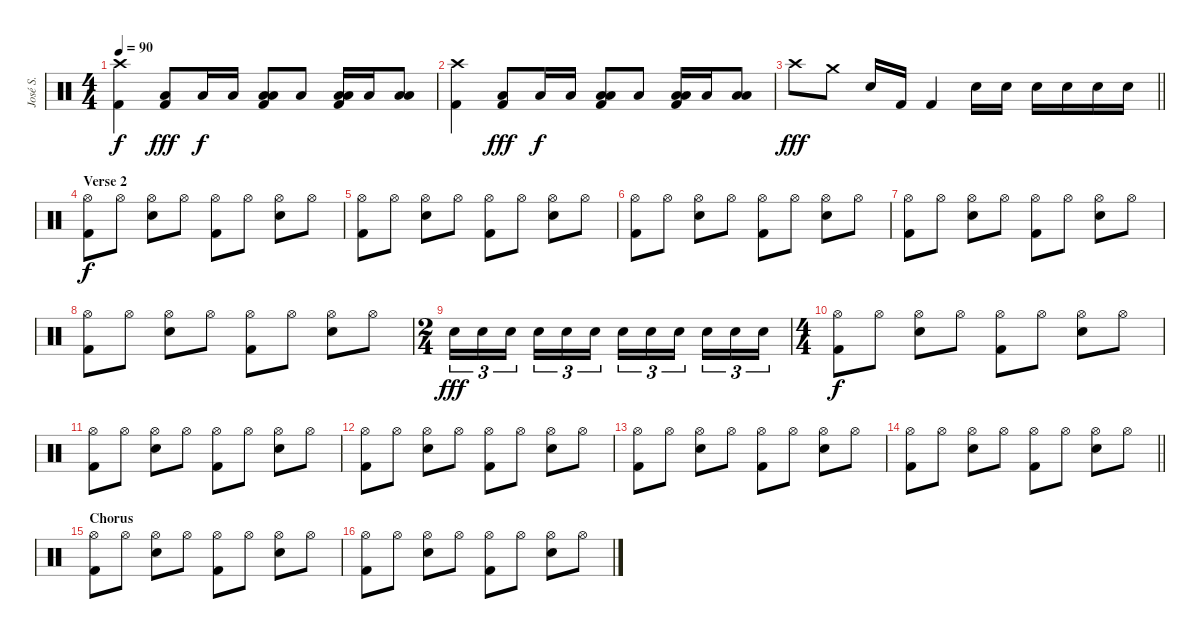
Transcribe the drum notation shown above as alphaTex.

\track ("José S." "José S.") {instrument percussion}
\staff {score}
\articulation defaults
\ts (4 4)
\tempo 90
\clef neutral
\ks c
("Crash high (hit)" "Kick (hit) 2").4{dy f} ("Low Floor Tom (hit)" "Kick (hit) 2").8{dy fff} "Low Floor Tom (hit)".16{dy f} "Low Floor Tom (hit)".16 ("Low Tom (hit)" "Low Floor Tom (hit)" "Kick (hit) 2").8 "Low Floor Tom (hit)".8 ("Low Tom (hit)" "Low Floor Tom (hit)" "Kick (hit) 2").16 "Low Floor Tom (hit)".16 ("Low Tom (hit)" "Low Floor Tom (hit)").8 |
("Crash high (hit)" "Kick (hit) 2").4 ("Low Floor Tom (hit)" "Kick (hit) 2").8{dy fff} "Low Floor Tom (hit)".16{dy f} "Low Floor Tom (hit)".16 ("Low Tom (hit)" "Low Floor Tom (hit)" "Kick (hit) 2").8 "Low Floor Tom (hit)".8 ("Low Tom (hit)" "Low Floor Tom (hit)" "Kick (hit) 2").16 "Low Floor Tom (hit)".16 ("Low Tom (hit)" "Low Floor Tom (hit)").8 |
\barLineRight lightlight "Crash high (hit)".8{dy fff} "Crash medium (hit)".8 "Electric Snare (hit)".16 "Kick (hit) 2".16 "Kick (hit) 2".4 "Electric Snare (hit)".16 "Electric Snare (hit)".16 "Electric Snare (hit)".16 "Electric Snare (hit)".16 "Electric Snare (hit)".16 "Electric Snare (hit)".16
|
\section ("" "Verse 2")
("Hi-Hat (open)" "Kick (hit) 2").8{dy f} "Hi-Hat (open)".8 ("Hi-Hat (open)" "Electric Snare (hit)").8 "Hi-Hat (open)".8 ("Hi-Hat (open)" "Kick (hit) 2").8 "Hi-Hat (open)".8 ("Hi-Hat (open)" "Electric Snare (hit)").8 "Hi-Hat (open)".8 |
("Hi-Hat (open)" "Kick (hit) 2").8 "Hi-Hat (open)".8 ("Hi-Hat (open)" "Electric Snare (hit)").8 "Hi-Hat (open)".8 ("Hi-Hat (open)" "Kick (hit) 2").8 "Hi-Hat (open)".8 ("Hi-Hat (open)" "Electric Snare (hit)").8 "Hi-Hat (open)".8 |
("Hi-Hat (open)" "Kick (hit) 2").8 "Hi-Hat (open)".8 ("Hi-Hat (open)" "Electric Snare (hit)").8 "Hi-Hat (open)".8 ("Hi-Hat (open)" "Kick (hit) 2").8 "Hi-Hat (open)".8 ("Hi-Hat (open)" "Electric Snare (hit)").8 "Hi-Hat (open)".8 |
("Hi-Hat (open)" "Kick (hit) 2").8 "Hi-Hat (open)".8 ("Hi-Hat (open)" "Electric Snare (hit)").8 "Hi-Hat (open)".8 ("Hi-Hat (open)" "Kick (hit) 2").8 "Hi-Hat (open)".8 ("Hi-Hat (open)" "Electric Snare (hit)").8 "Hi-Hat (open)".8 |
("Hi-Hat (open)" "Kick (hit) 2").8 "Hi-Hat (open)".8 ("Hi-Hat (open)" "Electric Snare (hit)").8 "Hi-Hat (open)".8 ("Hi-Hat (open)" "Kick (hit) 2").8 "Hi-Hat (open)".8 ("Hi-Hat (open)" "Electric Snare (hit)").8 "Hi-Hat (open)".8 |
\ts (2 4)
"Electric Snare (hit)".16{tu (3 2) dy fff} "Electric Snare (hit)".16{tu (3 2)} "Electric Snare (hit)".16{tu (3 2) beam splitsecondary} "Electric Snare (hit)".16{tu (3 2)} "Electric Snare (hit)".16{tu (3 2)} "Electric Snare (hit)".16{tu (3 2)} "Electric Snare (hit)".16{tu (3 2)} "Electric Snare (hit)".16{tu (3 2)} "Electric Snare (hit)".16{tu (3 2) beam splitsecondary} "Electric Snare (hit)".16{tu (3 2)} "Electric Snare (hit)".16{tu (3 2)} "Electric Snare (hit)".16{tu (3 2)} |
\ts (4 4)
("Hi-Hat (open)" "Kick (hit) 2").8{dy f} "Hi-Hat (open)".8 ("Hi-Hat (open)" "Electric Snare (hit)").8 "Hi-Hat (open)".8 ("Hi-Hat (open)" "Kick (hit) 2").8 "Hi-Hat (open)".8 ("Hi-Hat (open)" "Electric Snare (hit)").8 "Hi-Hat (open)".8 |
("Hi-Hat (open)" "Kick (hit) 2").8 "Hi-Hat (open)".8 ("Hi-Hat (open)" "Electric Snare (hit)").8 "Hi-Hat (open)".8 ("Hi-Hat (open)" "Kick (hit) 2").8 "Hi-Hat (open)".8 ("Hi-Hat (open)" "Electric Snare (hit)").8 "Hi-Hat (open)".8 |
("Hi-Hat (open)" "Kick (hit) 2").8 "Hi-Hat (open)".8 ("Hi-Hat (open)" "Electric Snare (hit)").8 "Hi-Hat (open)".8 ("Hi-Hat (open)" "Kick (hit) 2").8 "Hi-Hat (open)".8 ("Hi-Hat (open)" "Electric Snare (hit)").8 "Hi-Hat (open)".8 |
("Hi-Hat (open)" "Kick (hit) 2").8 "Hi-Hat (open)".8 ("Hi-Hat (open)" "Electric Snare (hit)").8 "Hi-Hat (open)".8 ("Hi-Hat (open)" "Kick (hit) 2").8 "Hi-Hat (open)".8 ("Hi-Hat (open)" "Electric Snare (hit)").8 "Hi-Hat (open)".8 |
\barLineRight lightlight
("Hi-Hat (open)" "Kick (hit) 2").8 "Hi-Hat (open)".8 ("Hi-Hat (open)" "Electric Snare (hit)").8 "Hi-Hat (open)".8 ("Hi-Hat (open)" "Kick (hit) 2").8 "Hi-Hat (open)".8 ("Hi-Hat (open)" "Electric Snare (hit)").8 "Hi-Hat (open)".8 |
\section ("" "Chorus")
("Hi-Hat (open)" "Kick (hit) 2").8 "Hi-Hat (open)".8 ("Hi-Hat (open)" "Electric Snare (hit)").8 "Hi-Hat (open)".8 ("Hi-Hat (open)" "Kick (hit) 2").8 "Hi-Hat (open)".8 ("Hi-Hat (open)" "Electric Snare (hit)").8 "Hi-Hat (open)".8 |
("Hi-Hat (open)" "Kick (hit) 2").8 "Hi-Hat (open)".8 ("Hi-Hat (open)" "Electric Snare (hit)").8 "Hi-Hat (open)".8 ("Hi-Hat (open)" "Kick (hit) 2").8 "Hi-Hat (open)".8 ("Hi-Hat (open)" "Electric Snare (hit)").8 "Hi-Hat (open)".8
